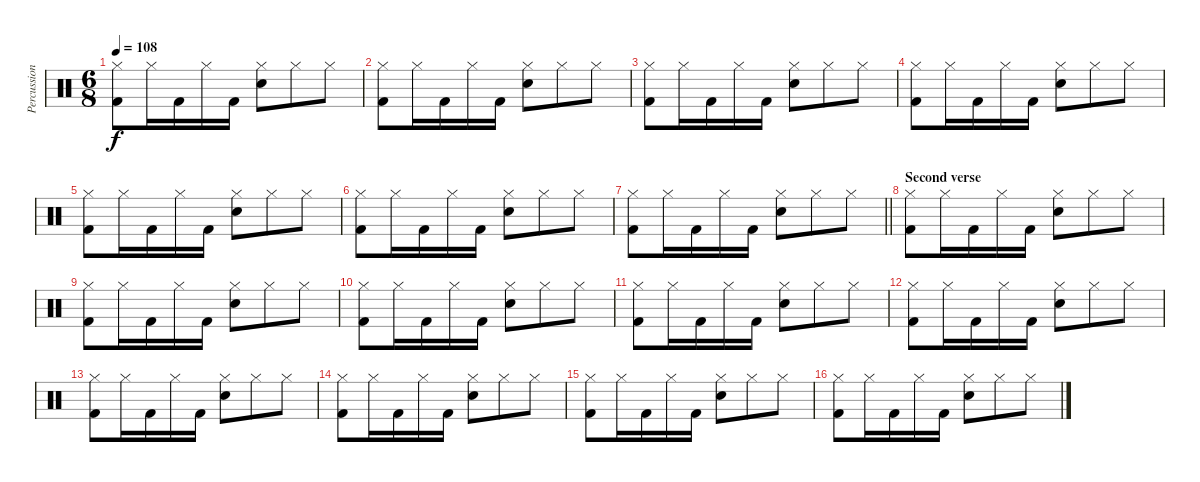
\track ("Percussions" "Percussion") {instrument percussion}
\staff {score}
\articulation defaults
\ts (6 8)
\tempo 108
\clef neutral
\ks c
("Hi-Hat (closed)" "Kick (hit) 2").8{dy f} "Hi-Hat (closed)".16 "Kick (hit) 2".16 "Hi-Hat (closed)".16 "Kick (hit) 2".16 ("Hi-Hat (closed)" "Electric Snare (hit)").8 "Hi-Hat (closed)".8 "Hi-Hat (closed)".8 |
("Hi-Hat (closed)" "Kick (hit) 2").8 "Hi-Hat (closed)".16 "Kick (hit) 2".16 "Hi-Hat (closed)".16 "Kick (hit) 2".16 ("Hi-Hat (closed)" "Electric Snare (hit)").8 "Hi-Hat (closed)".8 "Hi-Hat (closed)".8 |
("Hi-Hat (closed)" "Kick (hit) 2").8 "Hi-Hat (closed)".16 "Kick (hit) 2".16 "Hi-Hat (closed)".16 "Kick (hit) 2".16 ("Hi-Hat (closed)" "Electric Snare (hit)").8 "Hi-Hat (closed)".8 "Hi-Hat (closed)".8 |
("Hi-Hat (closed)" "Kick (hit) 2").8 "Hi-Hat (closed)".16 "Kick (hit) 2".16 "Hi-Hat (closed)".16 "Kick (hit) 2".16 ("Hi-Hat (closed)" "Electric Snare (hit)").8 "Hi-Hat (closed)".8 "Hi-Hat (closed)".8 |
("Hi-Hat (closed)" "Kick (hit) 2").8 "Hi-Hat (closed)".16 "Kick (hit) 2".16 "Hi-Hat (closed)".16 "Kick (hit) 2".16 ("Hi-Hat (closed)" "Electric Snare (hit)").8 "Hi-Hat (closed)".8 "Hi-Hat (closed)".8 |
("Hi-Hat (closed)" "Kick (hit) 2").8 "Hi-Hat (closed)".16 "Kick (hit) 2".16 "Hi-Hat (closed)".16 "Kick (hit) 2".16 ("Hi-Hat (closed)" "Electric Snare (hit)").8 "Hi-Hat (closed)".8 "Hi-Hat (closed)".8 |
\barLineRight lightlight
("Hi-Hat (closed)" "Kick (hit) 2").8 "Hi-Hat (closed)".16 "Kick (hit) 2".16 "Hi-Hat (closed)".16 "Kick (hit) 2".16 ("Hi-Hat (closed)" "Electric Snare (hit)").8 "Hi-Hat (closed)".8 "Hi-Hat (closed)".8 |
\section ("" "Second verse")
("Hi-Hat (closed)" "Kick (hit) 2").8 "Hi-Hat (closed)".16 "Kick (hit) 2".16 "Hi-Hat (closed)".16 "Kick (hit) 2".16 ("Hi-Hat (closed)" "Electric Snare (hit)").8 "Hi-Hat (closed)".8 "Hi-Hat (closed)".8 |
("Hi-Hat (closed)" "Kick (hit) 2").8 "Hi-Hat (closed)".16 "Kick (hit) 2".16 "Hi-Hat (closed)".16 "Kick (hit) 2".16 ("Hi-Hat (closed)" "Electric Snare (hit)").8 "Hi-Hat (closed)".8 "Hi-Hat (closed)".8 |
("Hi-Hat (closed)" "Kick (hit) 2").8 "Hi-Hat (closed)".16 "Kick (hit) 2".16 "Hi-Hat (closed)".16 "Kick (hit) 2".16 ("Hi-Hat (closed)" "Electric Snare (hit)").8 "Hi-Hat (closed)".8 "Hi-Hat (closed)".8 |
("Hi-Hat (closed)" "Kick (hit) 2").8 "Hi-Hat (closed)".16 "Kick (hit) 2".16 "Hi-Hat (closed)".16 "Kick (hit) 2".16 ("Hi-Hat (closed)" "Electric Snare (hit)").8 "Hi-Hat (closed)".8 "Hi-Hat (closed)".8 |
("Hi-Hat (closed)" "Kick (hit) 2").8 "Hi-Hat (closed)".16 "Kick (hit) 2".16 "Hi-Hat (closed)".16 "Kick (hit) 2".16 ("Hi-Hat (closed)" "Electric Snare (hit)").8 "Hi-Hat (closed)".8 "Hi-Hat (closed)".8 |
("Hi-Hat (closed)" "Kick (hit) 2").8 "Hi-Hat (closed)".16 "Kick (hit) 2".16 "Hi-Hat (closed)".16 "Kick (hit) 2".16 ("Hi-Hat (closed)" "Electric Snare (hit)").8 "Hi-Hat (closed)".8 "Hi-Hat (closed)".8 |
("Hi-Hat (closed)" "Kick (hit) 2").8 "Hi-Hat (closed)".16 "Kick (hit) 2".16 "Hi-Hat (closed)".16 "Kick (hit) 2".16 ("Hi-Hat (closed)" "Electric Snare (hit)").8 "Hi-Hat (closed)".8 "Hi-Hat (closed)".8 |
("Hi-Hat (closed)" "Kick (hit) 2").8 "Hi-Hat (closed)".16 "Kick (hit) 2".16 "Hi-Hat (closed)".16 "Kick (hit) 2".16 ("Hi-Hat (closed)" "Electric Snare (hit)").8 "Hi-Hat (closed)".8 "Hi-Hat (closed)".8 |
("Hi-Hat (closed)" "Kick (hit) 2").8 "Hi-Hat (closed)".16 "Kick (hit) 2".16 "Hi-Hat (closed)".16 "Kick (hit) 2".16 ("Hi-Hat (closed)" "Electric Snare (hit)").8 "Hi-Hat (closed)".8 "Hi-Hat (closed)".8
